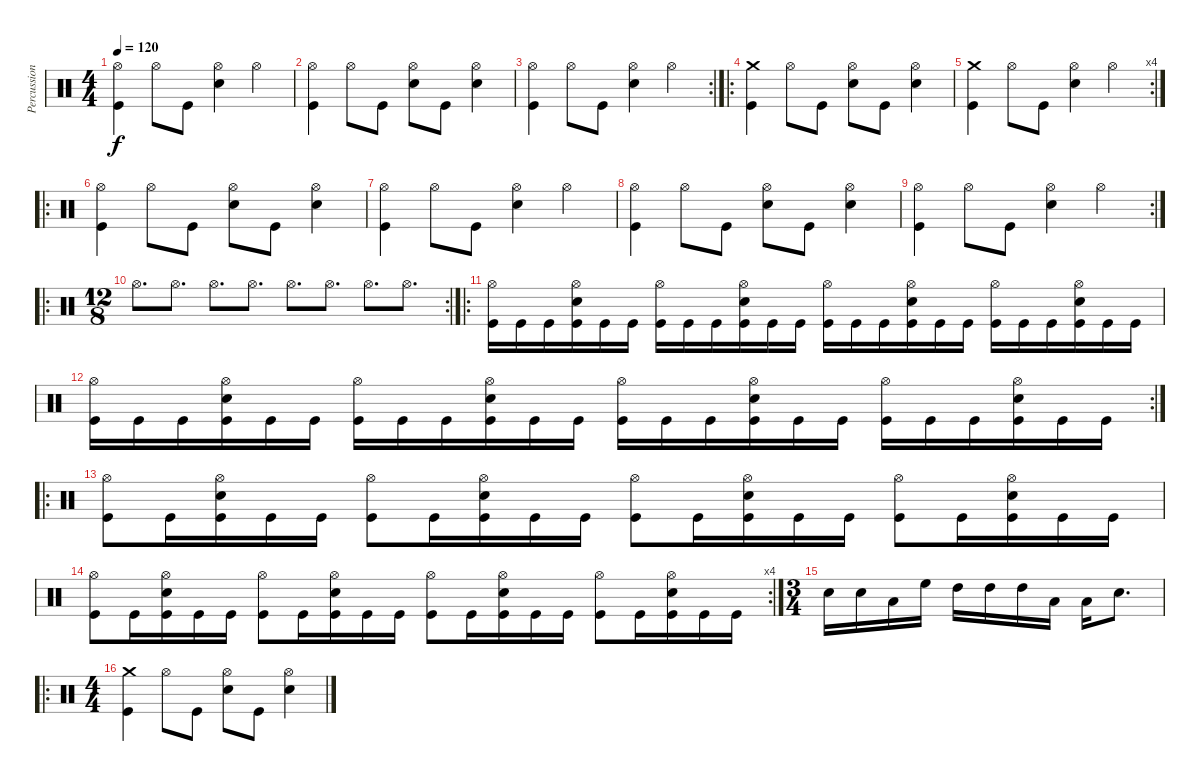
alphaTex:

\track ("Percussion" "Percussion") {instrument percussion}
\staff {score}
\articulation defaults
\ts (4 4)
\tempo 120
\clef neutral
\ks c
("Hi-Hat (open)" "Kick (hit)").4{dy f} "Hi-Hat (open)".8 "Kick (hit)".8 ("Hi-Hat (open)" "Snare (hit) 2").4 "Hi-Hat (open)".4 |
("Hi-Hat (open)" "Kick (hit)").4 "Hi-Hat (open)".8 "Kick (hit)".8 ("Hi-Hat (open)" "Snare (hit) 2").8 "Kick (hit)".8 ("Hi-Hat (open)" "Snare (hit) 2").4 |
\rc 2
("Hi-Hat (open)" "Kick (hit)").4 "Hi-Hat (open)".8 "Kick (hit)".8 ("Hi-Hat (open)" "Snare (hit) 2").4 "Hi-Hat (open)".4 |
\ro
("Crash medium (hit)" "Kick (hit)").4 "Hi-Hat (open)".8 "Kick (hit)".8 ("Hi-Hat (open)" "Snare (hit) 2").8 "Kick (hit)".8 ("Hi-Hat (open)" "Snare (hit) 2").4 |
\rc 4
("Crash medium (hit)" "Kick (hit)").4 "Hi-Hat (open)".8 "Kick (hit)".8 ("Hi-Hat (open)" "Snare (hit) 2").4 "Hi-Hat (open)".4 |
\ro
("Hi-Hat (open)" "Kick (hit)").4 "Hi-Hat (open)".8 "Kick (hit)".8 ("Hi-Hat (open)" "Snare (hit) 2").8 "Kick (hit)".8 ("Hi-Hat (open)" "Snare (hit) 2").4 |
("Hi-Hat (open)" "Kick (hit)").4 "Hi-Hat (open)".8 "Kick (hit)".8 ("Hi-Hat (open)" "Snare (hit) 2").4 "Hi-Hat (open)".4 |
("Hi-Hat (open)" "Kick (hit)").4 "Hi-Hat (open)".8 "Kick (hit)".8 ("Hi-Hat (open)" "Snare (hit) 2").8 "Kick (hit)".8 ("Hi-Hat (open)" "Snare (hit) 2").4 |
\rc 2
("Hi-Hat (open)" "Kick (hit)").4 "Hi-Hat (open)".8 "Kick (hit)".8 ("Hi-Hat (open)" "Snare (hit) 2").4 "Hi-Hat (open)".4 |
\ro
\rc 2
\ts (12 8)
"Hi-Hat (open)".8{d} "Hi-Hat (open)".8{d} "Hi-Hat (open)".8{d} "Hi-Hat (open)".8{d} "Hi-Hat (open)".8{d} "Hi-Hat (open)".8{d} "Hi-Hat (open)".8{d} "Hi-Hat (open)".8{d} |
\ro
("Hi-Hat (open)" "Kick (hit)").16 "Kick (hit)".16 "Kick (hit)".16 ("Hi-Hat (open)" "Snare (hit) 2" "Kick (hit)").16 "Kick (hit)".16 "Kick (hit)".16 ("Hi-Hat (open)" "Kick (hit)").16 "Kick (hit)".16 "Kick (hit)".16 ("Hi-Hat (open)" "Snare (hit) 2" "Kick (hit)").16 "Kick (hit)".16 "Kick (hit)".16 ("Hi-Hat (open)" "Kick (hit)").16 "Kick (hit)".16 "Kick (hit)".16 ("Hi-Hat (open)" "Snare (hit) 2" "Kick (hit)").16 "Kick (hit)".16 "Kick (hit)".16 ("Hi-Hat (open)" "Kick (hit)").16 "Kick (hit)".16 "Kick (hit)".16 ("Hi-Hat (open)" "Snare (hit) 2" "Kick (hit)").16 "Kick (hit)".16 "Kick (hit)".16 |
\rc 2
("Hi-Hat (open)" "Kick (hit)").16 "Kick (hit)".16 "Kick (hit)".16 ("Hi-Hat (open)" "Snare (hit) 2" "Kick (hit)").16 "Kick (hit)".16 "Kick (hit)".16 ("Hi-Hat (open)" "Kick (hit)").16 "Kick (hit)".16 "Kick (hit)".16 ("Hi-Hat (open)" "Snare (hit) 2" "Kick (hit)").16 "Kick (hit)".16 "Kick (hit)".16 ("Hi-Hat (open)" "Kick (hit)").16 "Kick (hit)".16 "Kick (hit)".16 ("Hi-Hat (open)" "Snare (hit) 2" "Kick (hit)").16 "Kick (hit)".16 "Kick (hit)".16 ("Hi-Hat (open)" "Kick (hit)").16 "Kick (hit)".16 "Kick (hit)".16 ("Hi-Hat (open)" "Snare (hit) 2" "Kick (hit)").16 "Kick (hit)".16 "Kick (hit)".16 |
\ro
("Hi-Hat (open)" "Kick (hit)").8 "Kick (hit)".16 ("Hi-Hat (open)" "Snare (hit) 2" "Kick (hit)").16 "Kick (hit)".16 "Kick (hit)".16 ("Hi-Hat (open)" "Kick (hit)").8 "Kick (hit)".16 ("Hi-Hat (open)" "Snare (hit) 2" "Kick (hit)").16 "Kick (hit)".16 "Kick (hit)".16 ("Hi-Hat (open)" "Kick (hit)").8 "Kick (hit)".16 ("Hi-Hat (open)" "Snare (hit) 2" "Kick (hit)").16 "Kick (hit)".16 "Kick (hit)".16 ("Hi-Hat (open)" "Kick (hit)").8 "Kick (hit)".16 ("Hi-Hat (open)" "Snare (hit) 2" "Kick (hit)").16 "Kick (hit)".16 "Kick (hit)".16 |
\rc 4
("Hi-Hat (open)" "Kick (hit)").8 "Kick (hit)".16 ("Hi-Hat (open)" "Snare (hit) 2" "Kick (hit)").16 "Kick (hit)".16 "Kick (hit)".16 ("Hi-Hat (open)" "Kick (hit)").8 "Kick (hit)".16 ("Hi-Hat (open)" "Snare (hit) 2" "Kick (hit)").16 "Kick (hit)".16 "Kick (hit)".16 ("Hi-Hat (open)" "Kick (hit)").8 "Kick (hit)".16 ("Hi-Hat (open)" "Snare (hit) 2" "Kick (hit)").16 "Kick (hit)".16 "Kick (hit)".16 ("Hi-Hat (open)" "Kick (hit)").8 "Kick (hit)".16 ("Hi-Hat (open)" "Snare (hit) 2" "Kick (hit)").16 "Kick (hit)".16 "Kick (hit)".16 |
\ts (3 4)
"Snare (hit) 2".16 "Snare (hit) 2".16 "Low Floor Tom (hit)".16 "High Floor Tom (hit)".16 "High Tom (hit)".16 "High Tom (hit)".16 "High Tom (hit)".16 "Low Tom (hit)".16 "Low Floor Tom (hit)".16 "Snare (hit) 2".8{d} |
\ro
\ts (4 4)
("Crash medium (hit)" "Kick (hit)").4 "Hi-Hat (open)".8 "Kick (hit)".8 ("Hi-Hat (open)" "Snare (hit) 2").8 "Kick (hit)".8 ("Hi-Hat (open)" "Snare (hit) 2").4
